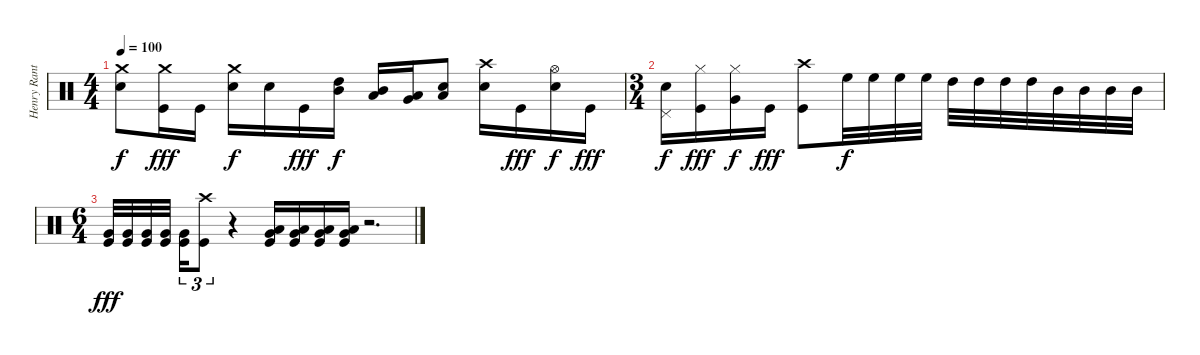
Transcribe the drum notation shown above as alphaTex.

\track ("Henry Ranta" "Henry Rant") {instrument percussion}
\staff {score}
\articulation defaults
\ts (4 4)
\tempo 100
\clef neutral
\ks c
("Crash medium (hit)" "Electric Snare (hit)").8{dy f} ("Crash medium (hit)" "Kick (hit)").16{dy fff} "Kick (hit)".16 ("Crash medium (hit)" "Electric Snare (hit)").16{dy f} "Electric Snare (hit)".16 "Kick (hit)".16{dy fff} ("Mid Tom (hit)" "High Tom (hit)").16{dy f} ("Mid Tom (hit)" "Low Tom (hit)").16 ("Very Low Tom (hit)" "Low Tom (hit)").16 ("Low Floor Tom (hit)" "Electric Snare (hit)").8 ("Crash high (hit)" "Electric Snare (hit)").16 "Kick (hit)".16{dy fff} ("Hi-Hat (open)" "Electric Snare (hit)").16{dy f} "Kick (hit)".16{dy fff} |
\ts (3 4)
("Pedal Hi-Hat (hit)" "Electric Snare (hit)").16{dy f} ("Hi-Hat (closed)" "Kick (hit)").16{dy fff} ("Hi-Hat (closed)" "Very Low Tom (hit)").16{dy f} "Kick (hit)".16{dy fff} ("Crash high (hit)" "Kick (hit)").8 "High Floor Tom (hit)".32{dy f} "High Floor Tom (hit)".32 "High Floor Tom (hit)".32 "High Floor Tom (hit)".32 "High Tom (hit)".32 "High Tom (hit)".32 "High Tom (hit)".32 "High Tom (hit)".32 "Mid Tom (hit)".32 "Mid Tom (hit)".32 "Mid Tom (hit)".32 "Mid Tom (hit)".32 |
\ts (6 4)
("Very Low Tom (hit)" "Kick (hit)").32{dy fff} ("Very Low Tom (hit)" "Kick (hit)").32 ("Very Low Tom (hit)" "Kick (hit)").32 ("Very Low Tom (hit)" "Kick (hit)").32 ("Very Low Tom (hit)" "Kick (hit)").16{tu (3 2)} ("Crash high (hit)" "Kick (hit)").8{tu (3 2)} r.4 ("Low Floor Tom (hit)" "Very Low Tom (hit)" "Kick (hit)").16 ("Low Floor Tom (hit)" "Very Low Tom (hit)" "Kick (hit)").16 ("Low Floor Tom (hit)" "Very Low Tom (hit)" "Kick (hit)").16 ("Low Floor Tom (hit)" "Very Low Tom (hit)" "Kick (hit)").16 r.2{d}
